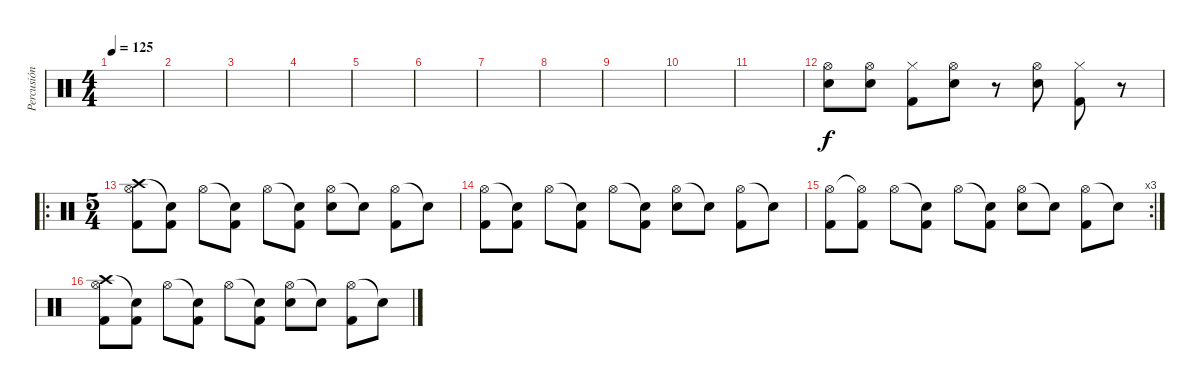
\track ("Percusión" "Percusión") {instrument percussion}
\staff {score}
\articulation defaults
\ts (4 4)
\tempo 125
\clef neutral
\ks c
|
|
|
|
|
|
|
|
|
|
|
("Hi-Hat (open)" "Electric Snare (hit)").8 ("Hi-Hat (open)" "Electric Snare (hit)").8 ("Hi-Hat (closed)" "Kick (hit) 2").8 ("Hi-Hat (open)" "Electric Snare (hit)").8 r.8 ("Hi-Hat (open)" "Electric Snare (hit)").8 ("Hi-Hat (closed)" "Kick (hit) 2").8 r.8 |
\ro
\ts (5 4)
("Crash high (hit)" "Hi-Hat (open)" "Kick (hit) 2").8 ("Snare (hit)"{t} "Kick (hit) 2").8 "Hi-Hat (open)".8 ("Snare (hit)"{t} "Kick (hit) 2").8 "Hi-Hat (open)".8 ("Snare (hit)"{t} "Kick (hit) 2").8 ("Hi-Hat (open)" "Electric Snare (hit)").8 "Snare (hit)"{t}.8 ("Hi-Hat (open)" "Kick (hit) 2").8 "Snare (hit)"{t}.8 |
("Hi-Hat (open)" "Kick (hit) 2").8 ("Snare (hit)"{t} "Kick (hit) 2").8 "Hi-Hat (open)".8 ("Snare (hit)"{t} "Kick (hit) 2").8 "Hi-Hat (open)".8 ("Snare (hit)"{t} "Kick (hit) 2").8 ("Hi-Hat (open)" "Electric Snare (hit)").8 "Snare (hit)"{t}.8 ("Hi-Hat (open)" "Kick (hit) 2").8 "Snare (hit)"{t}.8 |
\rc 3
("Hi-Hat (open)" "Kick (hit) 2").8 ("Hi-Hat (open)"{t} "Kick (hit) 2").8 "Hi-Hat (open)".8 ("Snare (hit)"{t} "Kick (hit) 2").8 "Hi-Hat (open)".8 ("Snare (hit)"{t} "Kick (hit) 2").8 ("Hi-Hat (open)" "Electric Snare (hit)").8 "Snare (hit)"{t}.8 ("Hi-Hat (open)" "Kick (hit) 2").8 "Snare (hit)"{t}.8 |
("Crash high (hit)" "Hi-Hat (open)" "Kick (hit) 2").8 ("Snare (hit)"{t} "Kick (hit) 2").8 "Hi-Hat (open)".8 ("Snare (hit)"{t} "Kick (hit) 2").8 "Hi-Hat (open)".8 ("Snare (hit)"{t} "Kick (hit) 2").8 ("Hi-Hat (open)" "Electric Snare (hit)").8 "Snare (hit)"{t}.8 ("Hi-Hat (open)" "Kick (hit) 2").8 "Snare (hit)"{t}.8
